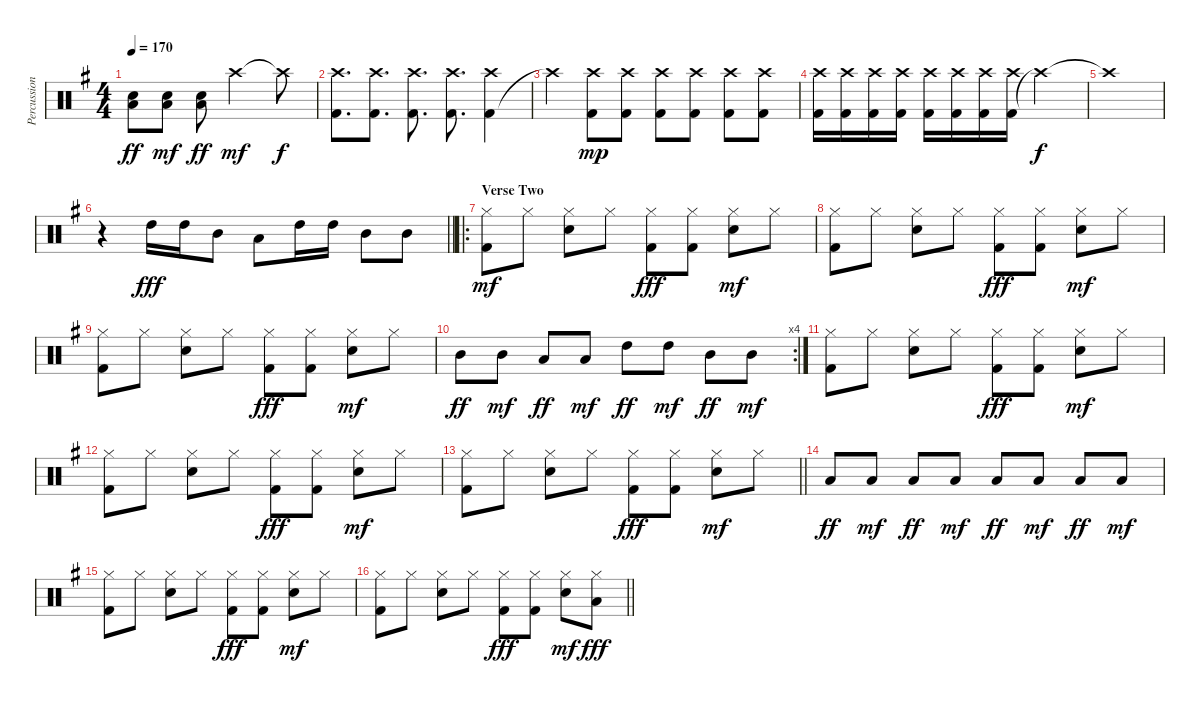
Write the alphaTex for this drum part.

\track ("Percussion" "Percussion") {instrument percussion}
\staff {score}
\articulation defaults
\ts (4 4)
\tempo 170
\clef neutral
\ks g
("Electric Snare (hit)" "Low Tom (hit)").8{dy ff} ("Electric Snare (hit)" "Low Tom (hit)").8{dy mf} ("Electric Snare (hit)" "Low Tom (hit)").8{dy ff} "Crash high (hit)".2{dy mf} "Crash high (hit)"{t}.8{dy f} |
("Kick (hit) 2" "Crash high (hit)").8{d} ("Kick (hit) 2" "Crash high (hit)").8{d} ("Kick (hit) 2" "Crash high (hit)").8{d} ("Kick (hit) 2" "Crash high (hit)").8{d} ("Kick (hit) 2" "Crash high (hit)").4 |
"Crash high (hit)"{t}.4 ("Kick (hit) 2" "Crash high (hit)").8{dy mp} ("Kick (hit) 2" "Crash high (hit)").8 ("Kick (hit) 2" "Crash high (hit)").8 ("Kick (hit) 2" "Crash high (hit)").8 ("Kick (hit) 2" "Crash high (hit)").8 ("Kick (hit) 2" "Crash high (hit)").8 |
("Kick (hit) 2" "Crash high (hit)").16 ("Kick (hit) 2" "Crash high (hit)").16 ("Kick (hit) 2" "Crash high (hit)").16 ("Kick (hit) 2" "Crash high (hit)").16 ("Kick (hit) 2" "Crash high (hit)").16 ("Kick (hit) 2" "Crash high (hit)").16 ("Kick (hit) 2" "Crash high (hit)").16 ("Kick (hit) 2" "Crash high (hit)").16 "Crash high (hit)"{t}.2{dy f} |
"Crash high (hit)"{t}.1 |
\barLineRight lightlight
r.4 "High Tom (hit)".16{dy fff} "High Tom (hit)".16 "Mid Tom (hit)".8 "Low Tom (hit)".8 "High Tom (hit)".16 "High Tom (hit)".16 "Mid Tom (hit)".8 "Mid Tom (hit)".8 |
\ro
\section ("" "Verse Two")
("Kick (hit) 2" "Hi-Hat (closed)").8{dy mf} "Hi-Hat (closed)".8 ("Hi-Hat (closed)" "Electric Snare (hit)").8 "Hi-Hat (closed)".8 ("Hi-Hat (closed)" "Kick (hit) 2").8{dy fff} ("Hi-Hat (closed)" "Kick (hit) 2").8 ("Hi-Hat (closed)" "Electric Snare (hit)").8{dy mf} "Hi-Hat (closed)".8 |
("Kick (hit) 2" "Hi-Hat (closed)").8 "Hi-Hat (closed)".8 ("Hi-Hat (closed)" "Electric Snare (hit)").8 "Hi-Hat (closed)".8 ("Hi-Hat (closed)" "Kick (hit) 2").8{dy fff} ("Hi-Hat (closed)" "Kick (hit) 2").8 ("Hi-Hat (closed)" "Electric Snare (hit)").8{dy mf} "Hi-Hat (closed)".8 |
("Kick (hit) 2" "Hi-Hat (closed)").8 "Hi-Hat (closed)".8 ("Hi-Hat (closed)" "Electric Snare (hit)").8 "Hi-Hat (closed)".8 ("Hi-Hat (closed)" "Kick (hit) 2").8{dy fff} ("Hi-Hat (closed)" "Kick (hit) 2").8 ("Hi-Hat (closed)" "Electric Snare (hit)").8{dy mf} "Hi-Hat (closed)".8 |
\rc 4 "Mid Tom (hit)".8{dy ff} "Mid Tom (hit)".8{dy mf} "Low Tom (hit)".8{dy ff} "Low Tom (hit)".8{dy mf} "High Tom (hit)".8{dy ff} "High Tom (hit)".8{dy mf} "Mid Tom (hit)".8{dy ff} "Mid Tom (hit)".8{dy mf}
|
("Kick (hit) 2" "Hi-Hat (closed)").8 "Hi-Hat (closed)".8 ("Hi-Hat (closed)" "Electric Snare (hit)").8 "Hi-Hat (closed)".8 ("Hi-Hat (closed)" "Kick (hit) 2").8{dy fff} ("Hi-Hat (closed)" "Kick (hit) 2").8 ("Hi-Hat (closed)" "Electric Snare (hit)").8{dy mf} "Hi-Hat (closed)".8 |
("Kick (hit) 2" "Hi-Hat (closed)").8 "Hi-Hat (closed)".8 ("Hi-Hat (closed)" "Electric Snare (hit)").8 "Hi-Hat (closed)".8 ("Hi-Hat (closed)" "Kick (hit) 2").8{dy fff} ("Hi-Hat (closed)" "Kick (hit) 2").8 ("Hi-Hat (closed)" "Electric Snare (hit)").8{dy mf} "Hi-Hat (closed)".8 |
\barLineRight lightlight
("Kick (hit) 2" "Hi-Hat (closed)").8 "Hi-Hat (closed)".8 ("Hi-Hat (closed)" "Electric Snare (hit)").8 "Hi-Hat (closed)".8 ("Hi-Hat (closed)" "Kick (hit) 2").8{dy fff} ("Hi-Hat (closed)" "Kick (hit) 2").8 ("Hi-Hat (closed)" "Electric Snare (hit)").8{dy mf} "Hi-Hat (closed)".8 |
"Low Tom (hit)".8{dy ff} "Low Tom (hit)".8{dy mf} "Low Tom (hit)".8{dy ff} "Low Tom (hit)".8{dy mf} "Low Tom (hit)".8{dy ff} "Low Tom (hit)".8{dy mf} "Low Tom (hit)".8{dy ff} "Low Tom (hit)".8{dy mf} |
("Kick (hit) 2" "Hi-Hat (closed)").8 "Hi-Hat (closed)".8 ("Hi-Hat (closed)" "Electric Snare (hit)").8 "Hi-Hat (closed)".8 ("Hi-Hat (closed)" "Kick (hit) 2").8{dy fff} ("Hi-Hat (closed)" "Kick (hit) 2").8 ("Hi-Hat (closed)" "Electric Snare (hit)").8{dy mf} "Hi-Hat (closed)".8 |
\barLineRight lightlight
("Kick (hit) 2" "Hi-Hat (closed)").8 "Hi-Hat (closed)".8 ("Hi-Hat (closed)" "Electric Snare (hit)").8 "Hi-Hat (closed)".8 ("Hi-Hat (closed)" "Kick (hit) 2").8{dy fff} ("Hi-Hat (closed)" "Kick (hit) 2").8 ("Hi-Hat (closed)" "Electric Snare (hit)").8{dy mf} ("Hi-Hat (closed)" "Low Tom (hit)").8{dy fff}
